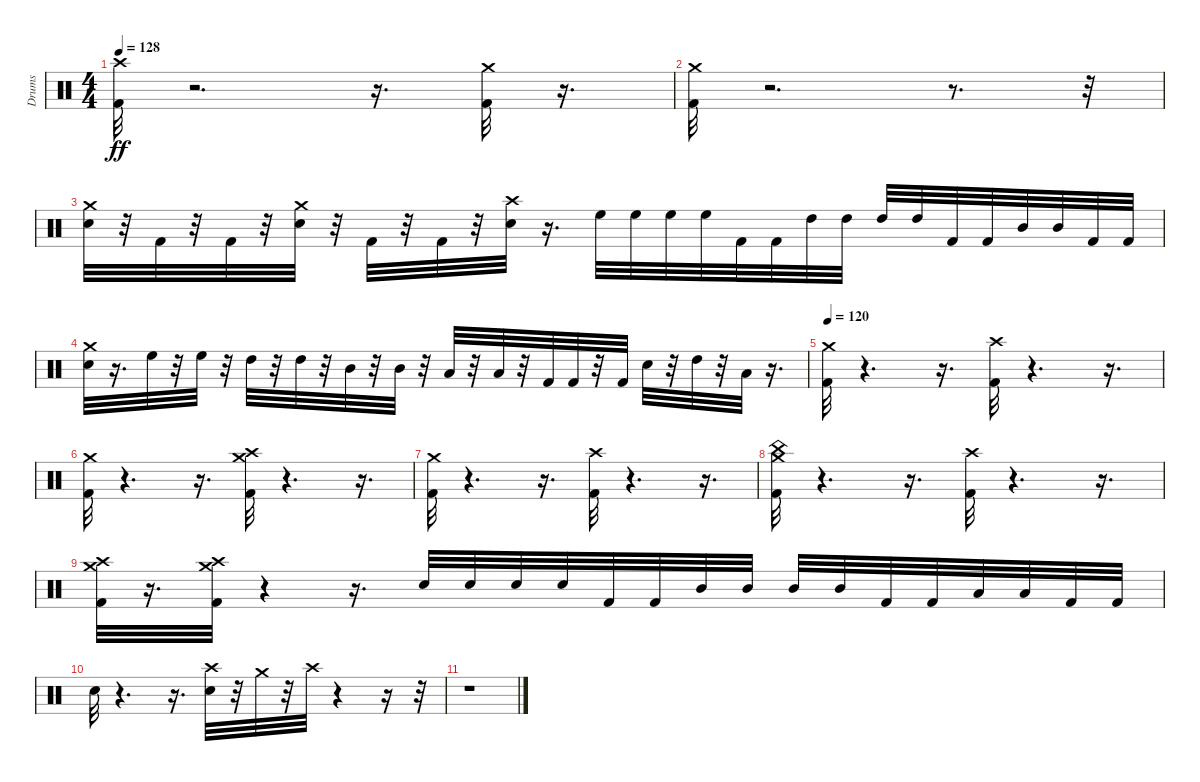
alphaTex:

\track ("Drums" "Drums") {instrument percussion}
\staff {score}
\articulation defaults
\ts (4 4)
\tempo 128
\clef neutral
\ks c
("Kick (hit) 2" "Crash high (hit)").32{dy ff} r.2{d} r.16{d} ("Kick (hit) 2" "Crash medium (hit)").32 r.16{d} |
("Kick (hit) 2" "Crash medium (hit)").32 r.2{d} r.8{d} r.32 |
("Snare (hit) 2" "Crash medium (hit)").32 r.32 "Kick (hit) 2".32 r.32 "Kick (hit) 2".32 r.32 ("Snare (hit) 2" "Crash medium (hit)").32 r.32 "Kick (hit) 2".32 r.32 "Kick (hit) 2".32 r.32 ("Crash high (hit)" "Snare (hit) 2").32 r.16{d} "High Floor Tom (hit)".32 "High Floor Tom (hit)".32 "High Floor Tom (hit)".32 "High Floor Tom (hit)".32 "Kick (hit) 2".32 "Kick (hit) 2".32 "High Tom (hit)".32 "High Tom (hit)".32 "High Tom (hit)".32 "High Tom (hit)".32 "Kick (hit) 2".32 "Kick (hit) 2".32 "Mid Tom (hit)".32 "Mid Tom (hit)".32 "Kick (hit) 2".32 "Kick (hit) 2".32 |
("Crash medium (hit)" "Snare (hit) 2").32 r.16{d} "High Floor Tom (hit)".32 r.32 "High Floor Tom (hit)".32 r.32 "High Tom (hit)".32 r.32 "High Tom (hit)".32 r.32 "Mid Tom (hit)".32 r.32 "Mid Tom (hit)".32 r.32 "Low Tom (hit)".32 r.32 "Low Tom (hit)".32 r.32 "Kick (hit) 2".32 "Kick (hit) 2".32 r.32 "Kick (hit) 2".32 "Snare (hit) 2".32 r.32 "High Tom (hit)".32 r.32 "Low Tom (hit)".32 r.16{d} |
\tempo 120
("Crash medium (hit)" "Kick (hit) 2").32 r.4{d} r.16{d} ("Crash high (hit)" "Kick (hit) 2").32 r.4{d} r.16{d} |
("Kick (hit) 2" "Crash medium (hit)").32 r.4{d} r.16{d} ("Crash medium (hit)" "Kick (hit) 2" "Crash high (hit)").32 r.4{d} r.16{d} |
("Kick (hit) 2" "Crash medium (hit)").32 r.4{d} r.16{d} ("Crash high (hit)" "Kick (hit) 2").32 r.4{d} r.16{d} |
("Crash medium (hit)" "China (hit)" "Kick (hit) 2").32 r.4{d} r.16{d} ("Crash high (hit)" "Kick (hit) 2").32 r.4{d} r.16{d} |
("Crash medium (hit)" "Crash high (hit)" "Kick (hit) 2").32 r.16{d} ("Crash medium (hit)" "Kick (hit) 2" "Crash high (hit)").32 r.4 r.16{d} "Snare (hit) 2".32 "Snare (hit) 2".32 "Snare (hit) 2".32 "Snare (hit) 2".32 "Kick (hit) 2".32 "Kick (hit) 2".32 "Mid Tom (hit)".32 "Mid Tom (hit)".32 "Mid Tom (hit)".32 "Mid Tom (hit)".32 "Kick (hit) 2".32 "Kick (hit) 2".32 "Low Tom (hit)".32 "Low Tom (hit)".32 "Kick (hit) 2".32 "Kick (hit) 2".32 |
"Snare (hit) 2".32 r.4{d} r.16{d} ("Snare (hit) 2" "Crash high (hit)").32 r.32 "Crash medium (hit)".32 r.32 "Crash high (hit)".32 r.4 r.16 r.32 |
r.1
